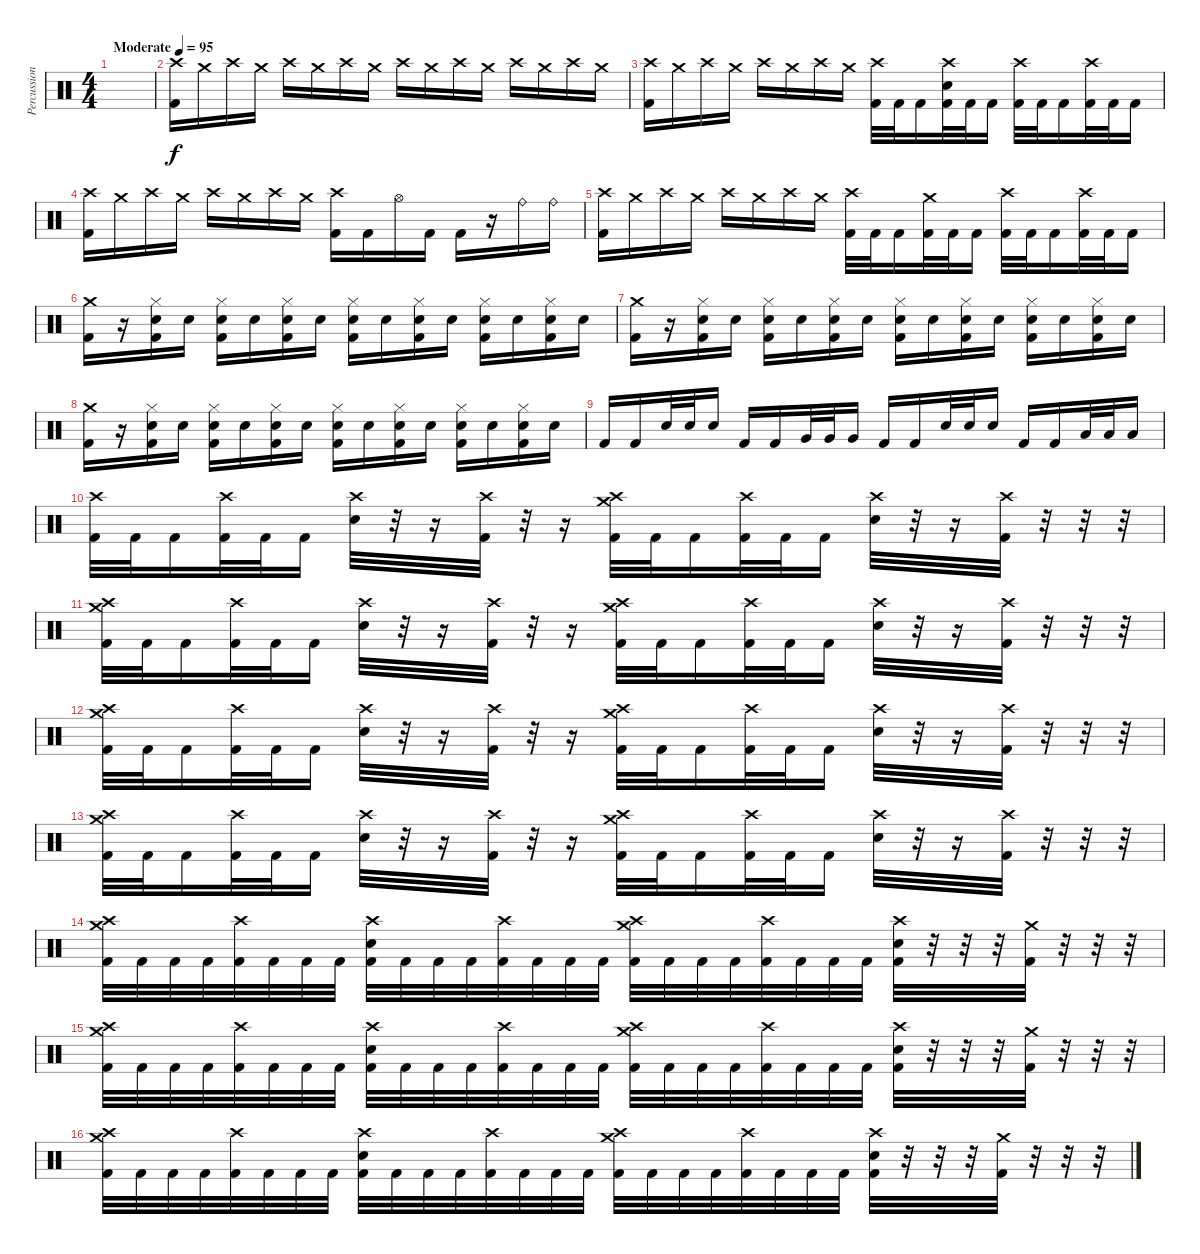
\track ("Percussion" "Percussion") {instrument percussion}
\staff {score}
\articulation defaults
\ts (4 4)
\tempo (95 "Moderate")
\clef neutral
\ks c
|
("Crash high (hit)" "Kick (hit) 2").16 "Crash medium (hit)".16 "Crash high (hit)".16 "Crash medium (hit)".16 "Crash high (hit)".16 "Crash medium (hit)".16 "Crash high (hit)".16 "Crash medium (hit)".16 "Crash high (hit)".16 "Crash medium (hit)".16 "Crash high (hit)".16 "Crash medium (hit)".16 "Crash high (hit)".16 "Crash medium (hit)".16 "Crash high (hit)".16 "Crash medium (hit)".16 |
("Crash high (hit)" "Kick (hit) 2").16 "Crash medium (hit)".16 "Crash high (hit)".16 "Crash medium (hit)".16 "Crash high (hit)".16 "Crash medium (hit)".16 "Crash high (hit)".16 "Crash medium (hit)".16 ("Crash high (hit)" "Kick (hit) 2").32 "Kick (hit) 2".32 "Kick (hit) 2".16 ("Crash high (hit)" "Electric Snare (hit)" "Kick (hit) 2").32 "Kick (hit) 2".32 "Kick (hit) 2".16 ("Crash high (hit)" "Kick (hit) 2").32 "Kick (hit) 2".32 "Kick (hit) 2".16 ("Crash high (hit)" "Kick (hit) 2").32 "Kick (hit) 2".32 "Kick (hit) 2".16 |
("Crash high (hit)" "Kick (hit) 2").16 "Crash medium (hit)".16 "Crash high (hit)".16 "Crash medium (hit)".16 "Crash high (hit)".16 "Crash medium (hit)".16 "Crash high (hit)".16 "Crash medium (hit)".16 ("Crash high (hit)" "Kick (hit) 2").16 "Kick (hit) 2".16 "Hi-Hat (open)".16 "Kick (hit) 2".16 "Kick (hit) 2".16 r.16 "Ride (bell)".16 "Ride (bell)".16 |
("Crash high (hit)" "Kick (hit) 2").16 "Crash medium (hit)".16 "Crash high (hit)".16 "Crash medium (hit)".16 "Crash high (hit)".16 "Crash medium (hit)".16 "Crash high (hit)".16 "Crash medium (hit)".16 ("Crash high (hit)" "Kick (hit) 2").32 "Kick (hit) 2".32 "Kick (hit) 2".16 ("Crash medium (hit)" "Kick (hit) 2").32 "Kick (hit) 2".32 "Kick (hit) 2".16 ("Crash high (hit)" "Kick (hit) 2").32 "Kick (hit) 2".32 "Kick (hit) 2".16 ("Crash high (hit)" "Kick (hit) 2").32 "Kick (hit) 2".32 "Kick (hit) 2".16 |
("Crash medium (hit)" "Kick (hit) 2").16 r.16 ("Hi-Hat (closed)" "Electric Snare (hit)" "Kick (hit) 2").16 "Electric Snare (hit)".16 ("Hi-Hat (closed)" "Electric Snare (hit)" "Kick (hit) 2").16 "Electric Snare (hit)".16 ("Hi-Hat (closed)" "Electric Snare (hit)" "Kick (hit) 2").16 "Electric Snare (hit)".16 ("Hi-Hat (closed)" "Electric Snare (hit)" "Kick (hit) 2").16 "Electric Snare (hit)".16 ("Hi-Hat (closed)" "Electric Snare (hit)" "Kick (hit) 2").16 "Electric Snare (hit)".16 ("Hi-Hat (closed)" "Electric Snare (hit)" "Kick (hit) 2").16 "Electric Snare (hit)".16 ("Hi-Hat (closed)" "Electric Snare (hit)" "Kick (hit) 2").16 "Electric Snare (hit)".16 |
("Crash medium (hit)" "Kick (hit) 2").16 r.16 ("Hi-Hat (closed)" "Electric Snare (hit)" "Kick (hit) 2").16 "Electric Snare (hit)".16 ("Hi-Hat (closed)" "Electric Snare (hit)" "Kick (hit) 2").16 "Electric Snare (hit)".16 ("Hi-Hat (closed)" "Electric Snare (hit)" "Kick (hit) 2").16 "Electric Snare (hit)".16 ("Hi-Hat (closed)" "Electric Snare (hit)" "Kick (hit) 2").16 "Electric Snare (hit)".16 ("Hi-Hat (closed)" "Electric Snare (hit)" "Kick (hit) 2").16 "Electric Snare (hit)".16 ("Hi-Hat (closed)" "Electric Snare (hit)" "Kick (hit) 2").16 "Electric Snare (hit)".16 ("Hi-Hat (closed)" "Electric Snare (hit)" "Kick (hit) 2").16 "Electric Snare (hit)".16 |
("Crash medium (hit)" "Kick (hit) 2").16 r.16 ("Hi-Hat (closed)" "Electric Snare (hit)" "Kick (hit) 2").16 "Electric Snare (hit)".16 ("Hi-Hat (closed)" "Electric Snare (hit)" "Kick (hit) 2").16 "Electric Snare (hit)".16 ("Hi-Hat (closed)" "Electric Snare (hit)" "Kick (hit) 2").16 "Electric Snare (hit)".16 ("Hi-Hat (closed)" "Electric Snare (hit)" "Kick (hit) 2").16 "Electric Snare (hit)".16 ("Hi-Hat (closed)" "Electric Snare (hit)" "Kick (hit) 2").16 "Electric Snare (hit)".16 ("Hi-Hat (closed)" "Electric Snare (hit)" "Kick (hit) 2").16 "Electric Snare (hit)".16 ("Hi-Hat (closed)" "Electric Snare (hit)" "Kick (hit) 2").16 "Electric Snare (hit)".16 |
"Kick (hit) 2".16 "Kick (hit) 2".16 "Electric Snare (hit)".32 "Electric Snare (hit)".32 "Electric Snare (hit)".16 "Kick (hit) 2".16 "Kick (hit) 2".16 "Very Low Tom (hit)".32 "Very Low Tom (hit)".32 "Very Low Tom (hit)".16 "Kick (hit) 2".16 "Kick (hit) 2".16 "Electric Snare (hit)".32 "Electric Snare (hit)".32 "Electric Snare (hit)".16 "Kick (hit) 2".16 "Kick (hit) 2".16 "Low Floor Tom (hit)".32 "Low Floor Tom (hit)".32 "Low Floor Tom (hit)".16 |
("Crash high (hit)" "Kick (hit) 2").32 "Kick (hit) 2".32 "Kick (hit) 2".16 ("Crash high (hit)" "Kick (hit) 2").32 "Kick (hit) 2".32 "Kick (hit) 2".16 ("Crash high (hit)" "Electric Snare (hit)").32 r.32 r.16 ("Crash high (hit)" "Kick (hit) 2").32 r.32 r.16 ("Crash medium (hit)" "Crash high (hit)" "Kick (hit) 2").32 "Kick (hit) 2".32 "Kick (hit) 2".16 ("Crash high (hit)" "Kick (hit) 2").32 "Kick (hit) 2".32 "Kick (hit) 2".16 ("Crash high (hit)" "Electric Snare (hit)").32 r.32 r.16 ("Crash high (hit)" "Kick (hit) 2").32 r.32 r.32 r.32 |
("Crash medium (hit)" "Crash high (hit)" "Kick (hit) 2").32 "Kick (hit) 2".32 "Kick (hit) 2".16 ("Crash high (hit)" "Kick (hit) 2").32 "Kick (hit) 2".32 "Kick (hit) 2".16 ("Crash high (hit)" "Electric Snare (hit)").32 r.32 r.16 ("Crash high (hit)" "Kick (hit) 2").32 r.32 r.16 ("Crash medium (hit)" "Crash high (hit)" "Kick (hit) 2").32 "Kick (hit) 2".32 "Kick (hit) 2".16 ("Crash high (hit)" "Kick (hit) 2").32 "Kick (hit) 2".32 "Kick (hit) 2".16 ("Crash high (hit)" "Electric Snare (hit)").32 r.32 r.16 ("Crash high (hit)" "Kick (hit) 2").32 r.32 r.32 r.32 |
("Crash medium (hit)" "Crash high (hit)" "Kick (hit) 2").32 "Kick (hit) 2".32 "Kick (hit) 2".16 ("Crash high (hit)" "Kick (hit) 2").32 "Kick (hit) 2".32 "Kick (hit) 2".16 ("Crash high (hit)" "Electric Snare (hit)").32 r.32 r.16 ("Crash high (hit)" "Kick (hit) 2").32 r.32 r.16 ("Crash medium (hit)" "Crash high (hit)" "Kick (hit) 2").32 "Kick (hit) 2".32 "Kick (hit) 2".16 ("Crash high (hit)" "Kick (hit) 2").32 "Kick (hit) 2".32 "Kick (hit) 2".16 ("Crash high (hit)" "Electric Snare (hit)").32 r.32 r.16 ("Crash high (hit)" "Kick (hit) 2").32 r.32 r.32 r.32 |
("Crash medium (hit)" "Crash high (hit)" "Kick (hit) 2").32 "Kick (hit) 2".32 "Kick (hit) 2".16 ("Crash high (hit)" "Kick (hit) 2").32 "Kick (hit) 2".32 "Kick (hit) 2".16 ("Crash high (hit)" "Electric Snare (hit)").32 r.32 r.16 ("Crash high (hit)" "Kick (hit) 2").32 r.32 r.16 ("Crash medium (hit)" "Crash high (hit)" "Kick (hit) 2").32 "Kick (hit) 2".32 "Kick (hit) 2".16 ("Crash high (hit)" "Kick (hit) 2").32 "Kick (hit) 2".32 "Kick (hit) 2".16 ("Crash high (hit)" "Electric Snare (hit)").32 r.32 r.16 ("Crash high (hit)" "Kick (hit) 2").32 r.32 r.32 r.32 |
("Crash medium (hit)" "Crash high (hit)" "Kick (hit) 2").32 "Kick (hit) 2".32 "Kick (hit) 2".32 "Kick (hit) 2".32 ("Crash high (hit)" "Kick (hit) 2").32 "Kick (hit) 2".32 "Kick (hit) 2".32 "Kick (hit) 2".32 ("Crash high (hit)" "Electric Snare (hit)" "Kick (hit) 2").32 "Kick (hit) 2".32 "Kick (hit) 2".32 "Kick (hit) 2".32 ("Crash high (hit)" "Kick (hit) 2").32 "Kick (hit) 2".32 "Kick (hit) 2".32 "Kick (hit) 2".32 ("Crash medium (hit)" "Crash high (hit)" "Kick (hit) 2").32 "Kick (hit) 2".32 "Kick (hit) 2".32 "Kick (hit) 2".32 ("Crash high (hit)" "Kick (hit) 2").32 "Kick (hit) 2".32 "Kick (hit) 2".32 "Kick (hit) 2".32 ("Crash high (hit)" "Electric Snare (hit)" "Kick (hit) 2").32 r.32 r.32 r.32 ("Crash medium (hit)" "Kick (hit) 2").32 r.32 r.32 r.32 |
("Crash medium (hit)" "Crash high (hit)" "Kick (hit) 2").32 "Kick (hit) 2".32 "Kick (hit) 2".32 "Kick (hit) 2".32 ("Crash high (hit)" "Kick (hit) 2").32 "Kick (hit) 2".32 "Kick (hit) 2".32 "Kick (hit) 2".32 ("Crash high (hit)" "Electric Snare (hit)" "Kick (hit) 2").32 "Kick (hit) 2".32 "Kick (hit) 2".32 "Kick (hit) 2".32 ("Crash high (hit)" "Kick (hit) 2").32 "Kick (hit) 2".32 "Kick (hit) 2".32 "Kick (hit) 2".32 ("Crash medium (hit)" "Crash high (hit)" "Kick (hit) 2").32 "Kick (hit) 2".32 "Kick (hit) 2".32 "Kick (hit) 2".32 ("Crash high (hit)" "Kick (hit) 2").32 "Kick (hit) 2".32 "Kick (hit) 2".32 "Kick (hit) 2".32 ("Crash high (hit)" "Electric Snare (hit)" "Kick (hit) 2").32 r.32 r.32 r.32 ("Crash medium (hit)" "Kick (hit) 2").32 r.32 r.32 r.32 |
("Crash medium (hit)" "Crash high (hit)" "Kick (hit) 2").32 "Kick (hit) 2".32 "Kick (hit) 2".32 "Kick (hit) 2".32 ("Crash high (hit)" "Kick (hit) 2").32 "Kick (hit) 2".32 "Kick (hit) 2".32 "Kick (hit) 2".32 ("Crash high (hit)" "Electric Snare (hit)" "Kick (hit) 2").32 "Kick (hit) 2".32 "Kick (hit) 2".32 "Kick (hit) 2".32 ("Crash high (hit)" "Kick (hit) 2").32 "Kick (hit) 2".32 "Kick (hit) 2".32 "Kick (hit) 2".32 ("Crash medium (hit)" "Crash high (hit)" "Kick (hit) 2").32 "Kick (hit) 2".32 "Kick (hit) 2".32 "Kick (hit) 2".32 ("Crash high (hit)" "Kick (hit) 2").32 "Kick (hit) 2".32 "Kick (hit) 2".32 "Kick (hit) 2".32 ("Crash high (hit)" "Electric Snare (hit)" "Kick (hit) 2").32 r.32 r.32 r.32 ("Crash medium (hit)" "Kick (hit) 2").32 r.32 r.32 r.32
